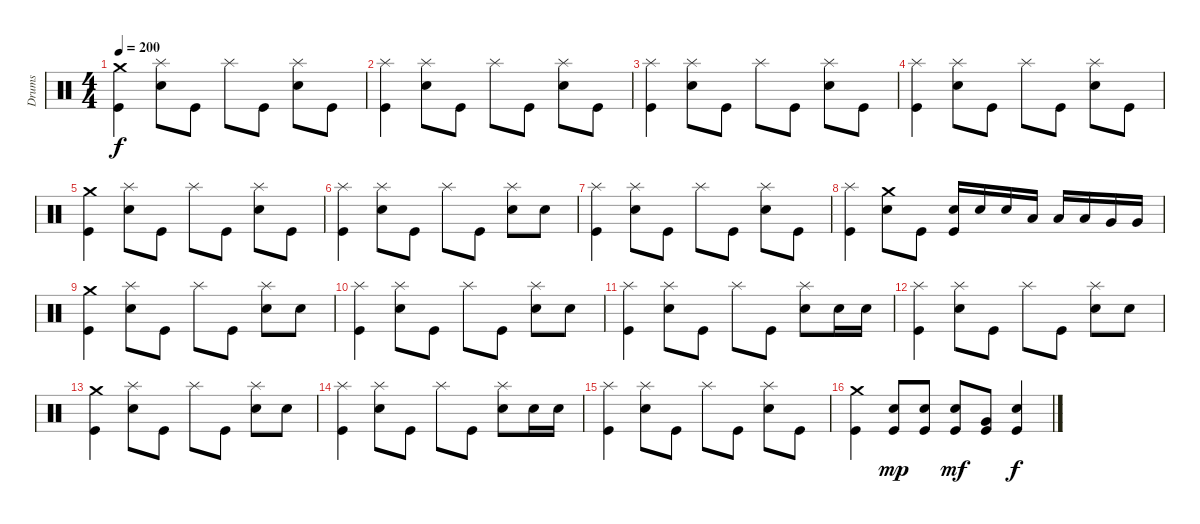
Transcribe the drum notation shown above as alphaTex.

\track ("Drums" "Drums") {instrument percussion}
\staff {score}
\articulation defaults
\ts (4 4)
\tempo 200
\clef neutral
\ks c
("Crash medium (hit)" "Kick (hit)").4{dy f} ("Splash (hit)" "Electric Snare (hit)").8 "Kick (hit)".8 "Splash (hit)".8 "Kick (hit)".8 ("Splash (hit)" "Electric Snare (hit)").8 "Kick (hit)".8 |
("Splash (hit)" "Kick (hit)").4 ("Splash (hit)" "Electric Snare (hit)").8 "Kick (hit)".8 "Splash (hit)".8 "Kick (hit)".8 ("Splash (hit)" "Electric Snare (hit)").8 "Kick (hit)".8 |
("Splash (hit)" "Kick (hit)").4 ("Splash (hit)" "Electric Snare (hit)").8 "Kick (hit)".8 "Splash (hit)".8 "Kick (hit)".8 ("Splash (hit)" "Electric Snare (hit)").8 "Kick (hit)".8 |
("Splash (hit)" "Kick (hit)").4 ("Splash (hit)" "Electric Snare (hit)").8 "Kick (hit)".8 "Splash (hit)".8 "Kick (hit)".8 ("Splash (hit)" "Electric Snare (hit)").8 "Kick (hit)".8 |
("Crash medium (hit)" "Kick (hit)").4 ("Splash (hit)" "Electric Snare (hit)").8 "Kick (hit)".8 "Splash (hit)".8 "Kick (hit)".8 ("Splash (hit)" "Electric Snare (hit)").8 "Kick (hit)".8 |
("Splash (hit)" "Kick (hit)").4 ("Splash (hit)" "Electric Snare (hit)").8 "Kick (hit)".8 "Splash (hit)".8 "Kick (hit)".8 ("Splash (hit)" "Electric Snare (hit)").8 "Electric Snare (hit)".8 |
("Splash (hit)" "Kick (hit)").4 ("Splash (hit)" "Electric Snare (hit)").8 "Kick (hit)".8 "Splash (hit)".8 "Kick (hit)".8 ("Splash (hit)" "Electric Snare (hit)").8 "Kick (hit)".8 |
("Splash (hit)" "Kick (hit)").4 ("Crash medium (hit)" "Electric Snare (hit)").8 "Kick (hit)".8 ("Electric Snare (hit)" "Kick (hit)").16 "Electric Snare (hit)".16 "Electric Snare (hit)".16 "Low Tom (hit)".16 "Low Tom (hit)".16 "Low Tom (hit)".16 "Very Low Tom (hit)".16 "Very Low Tom (hit)".16 |
("Crash medium (hit)" "Kick (hit)").4 ("Splash (hit)" "Electric Snare (hit)").8 "Kick (hit)".8 "Splash (hit)".8 "Kick (hit)".8 ("Splash (hit)" "Electric Snare (hit)").8 "Electric Snare (hit)".8 |
("Splash (hit)" "Kick (hit)").4 ("Splash (hit)" "Electric Snare (hit)").8 "Kick (hit)".8 "Splash (hit)".8 "Kick (hit)".8 ("Splash (hit)" "Electric Snare (hit)").8 "Electric Snare (hit)".8 |
("Splash (hit)" "Kick (hit)").4 ("Splash (hit)" "Electric Snare (hit)").8 "Kick (hit)".8 "Splash (hit)".8 "Kick (hit)".8 ("Splash (hit)" "Electric Snare (hit)").8 "Electric Snare (hit)".16 "Electric Snare (hit)".16 |
("Splash (hit)" "Kick (hit)").4 ("Splash (hit)" "Electric Snare (hit)").8 "Kick (hit)".8 "Splash (hit)".8 "Kick (hit)".8 ("Splash (hit)" "Electric Snare (hit)").8 "Electric Snare (hit)".8 |
("Crash medium (hit)" "Kick (hit)").4 ("Splash (hit)" "Electric Snare (hit)").8 "Kick (hit)".8 "Splash (hit)".8 "Kick (hit)".8 ("Splash (hit)" "Electric Snare (hit)").8 "Electric Snare (hit)".8 |
("Splash (hit)" "Kick (hit)").4 ("Splash (hit)" "Electric Snare (hit)").8 "Kick (hit)".8 "Splash (hit)".8 "Kick (hit)".8 ("Splash (hit)" "Electric Snare (hit)").8 "Electric Snare (hit)".16 "Electric Snare (hit)".16 |
("Splash (hit)" "Kick (hit)").4 ("Splash (hit)" "Electric Snare (hit)").8 "Kick (hit)".8 "Splash (hit)".8 "Kick (hit)".8 ("Splash (hit)" "Electric Snare (hit)").8 "Kick (hit)".8 |
("Crash medium (hit)" "Kick (hit)").4 ("Electric Snare (hit)" "Kick (hit)").8{dy mp} ("Electric Snare (hit)" "Kick (hit)").8 ("Electric Snare (hit)" "Kick (hit)").8{dy mf} ("Very Low Tom (hit)" "Kick (hit)").8 ("Electric Snare (hit)" "Kick (hit)").4{dy f}
